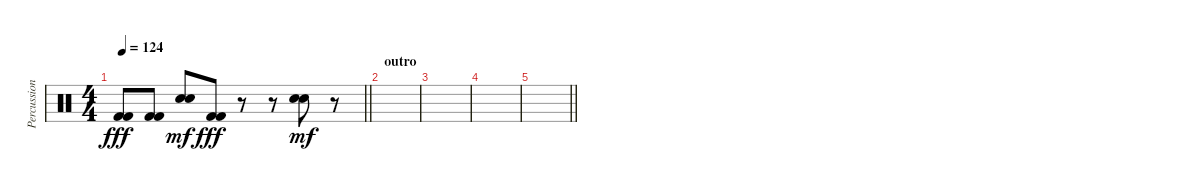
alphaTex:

\track ("Percussions" "Percussion") {instrument percussion}
\staff {score}
\articulation defaults
\ts (4 4)
\tempo 124
\clef neutral
\barLineRight lightlight
\ks c
("Kick (hit) 2" "Kick (hit) 2").8{dy fff} ("Kick (hit) 2" "Kick (hit) 2").8 ("Hand Clap (hit)" "Electric Snare (hit)").8{dy mf} ("Kick (hit) 2" "Kick (hit) 2").8{dy fff} r.8 r.8 ("Hand Clap (hit)" "Electric Snare (hit)").8{dy mf} r.8 |
\section ("" "outro")
|
|
|
\barLineRight lightlight
